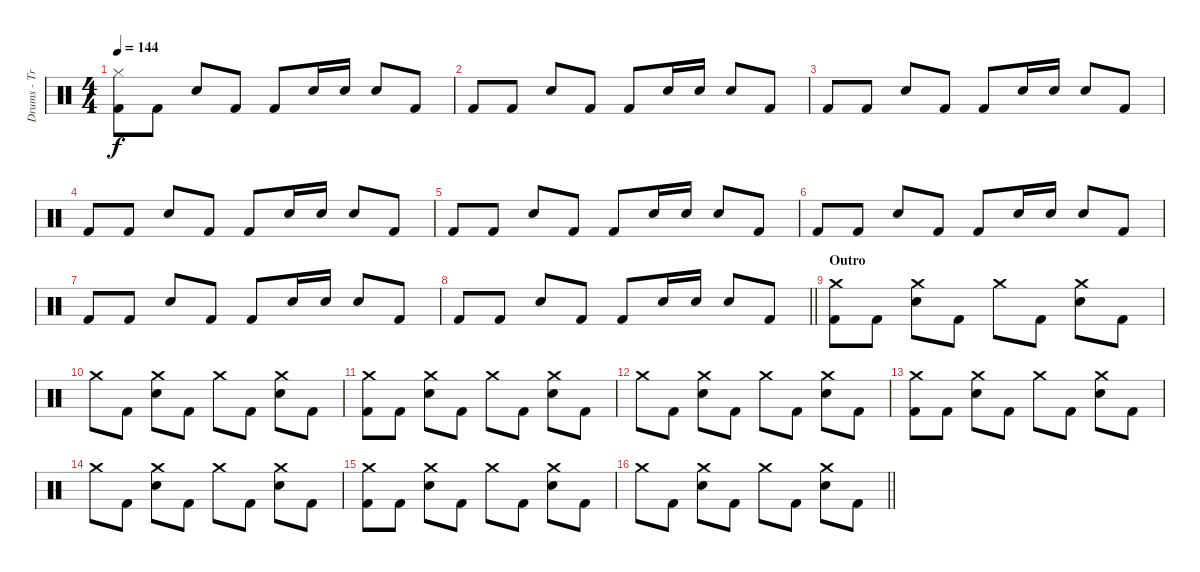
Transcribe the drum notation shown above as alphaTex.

\track ("Drums - Tre Cool" "Drums - Tr") {instrument percussion}
\staff {score}
\articulation defaults
\ts (4 4)
\tempo 144
\clef neutral
\ks c
("Hi-Hat (closed)" "Kick (hit) 2").8{dy f} "Kick (hit) 2".8 "Snare (hit) 2".8 "Kick (hit) 2".8 "Kick (hit) 2".8 "Snare (hit) 2".16 "Snare (hit) 2".16 "Snare (hit) 2".8 "Kick (hit) 2".8 |
"Kick (hit) 2".8 "Kick (hit) 2".8 "Snare (hit) 2".8 "Kick (hit) 2".8 "Kick (hit) 2".8 "Snare (hit) 2".16 "Snare (hit) 2".16 "Snare (hit) 2".8 "Kick (hit) 2".8 |
"Kick (hit) 2".8 "Kick (hit) 2".8 "Snare (hit) 2".8 "Kick (hit) 2".8 "Kick (hit) 2".8 "Snare (hit) 2".16 "Snare (hit) 2".16 "Snare (hit) 2".8 "Kick (hit) 2".8 |
"Kick (hit) 2".8 "Kick (hit) 2".8 "Snare (hit) 2".8 "Kick (hit) 2".8 "Kick (hit) 2".8 "Snare (hit) 2".16 "Snare (hit) 2".16 "Snare (hit) 2".8 "Kick (hit) 2".8 |
"Kick (hit) 2".8 "Kick (hit) 2".8 "Snare (hit) 2".8 "Kick (hit) 2".8 "Kick (hit) 2".8 "Snare (hit) 2".16 "Snare (hit) 2".16 "Snare (hit) 2".8 "Kick (hit) 2".8 |
"Kick (hit) 2".8 "Kick (hit) 2".8 "Snare (hit) 2".8 "Kick (hit) 2".8 "Kick (hit) 2".8 "Snare (hit) 2".16 "Snare (hit) 2".16 "Snare (hit) 2".8 "Kick (hit) 2".8 |
"Kick (hit) 2".8 "Kick (hit) 2".8 "Snare (hit) 2".8 "Kick (hit) 2".8 "Kick (hit) 2".8 "Snare (hit) 2".16 "Snare (hit) 2".16 "Snare (hit) 2".8 "Kick (hit) 2".8 |
\barLineRight lightlight "Kick (hit) 2".8 "Kick (hit) 2".8 "Snare (hit) 2".8 "Kick (hit) 2".8 "Kick (hit) 2".8 "Snare (hit) 2".16 "Snare (hit) 2".16 "Snare (hit) 2".8 "Kick (hit) 2".8
|
\section ("" "Outro")
("Crash medium (hit)" "Kick (hit) 2").8 "Kick (hit) 2".8 ("Crash medium (hit)" "Snare (hit) 2").8 "Kick (hit) 2".8 "Crash medium (hit)".8 "Kick (hit) 2".8 ("Crash medium (hit)" "Snare (hit) 2").8 "Kick (hit) 2".8 |
"Crash medium (hit)".8 "Kick (hit) 2".8 ("Crash medium (hit)" "Snare (hit) 2").8 "Kick (hit) 2".8 "Crash medium (hit)".8 "Kick (hit) 2".8 ("Crash medium (hit)" "Snare (hit) 2").8 "Kick (hit) 2".8 |
("Crash medium (hit)" "Kick (hit) 2").8 "Kick (hit) 2".8 ("Crash medium (hit)" "Snare (hit) 2").8 "Kick (hit) 2".8 "Crash medium (hit)".8 "Kick (hit) 2".8 ("Crash medium (hit)" "Snare (hit) 2").8 "Kick (hit) 2".8 |
"Crash medium (hit)".8 "Kick (hit) 2".8 ("Crash medium (hit)" "Snare (hit) 2").8 "Kick (hit) 2".8 "Crash medium (hit)".8 "Kick (hit) 2".8 ("Crash medium (hit)" "Snare (hit) 2").8 "Kick (hit) 2".8 |
("Crash medium (hit)" "Kick (hit) 2").8 "Kick (hit) 2".8 ("Crash medium (hit)" "Snare (hit) 2").8 "Kick (hit) 2".8 "Crash medium (hit)".8 "Kick (hit) 2".8 ("Crash medium (hit)" "Snare (hit) 2").8 "Kick (hit) 2".8 |
"Crash medium (hit)".8 "Kick (hit) 2".8 ("Crash medium (hit)" "Snare (hit) 2").8 "Kick (hit) 2".8 "Crash medium (hit)".8 "Kick (hit) 2".8 ("Crash medium (hit)" "Snare (hit) 2").8 "Kick (hit) 2".8 |
("Crash medium (hit)" "Kick (hit) 2").8 "Kick (hit) 2".8 ("Crash medium (hit)" "Snare (hit) 2").8 "Kick (hit) 2".8 "Crash medium (hit)".8 "Kick (hit) 2".8 ("Crash medium (hit)" "Snare (hit) 2").8 "Kick (hit) 2".8 |
\barLineRight lightlight "Crash medium (hit)".8 "Kick (hit) 2".8
("Crash medium (hit)" "Snare (hit) 2").8 "Kick (hit) 2".8 "Crash medium (hit)".8 "Kick (hit) 2".8 ("Crash medium (hit)" "Snare (hit) 2").8 "Kick (hit) 2".8
